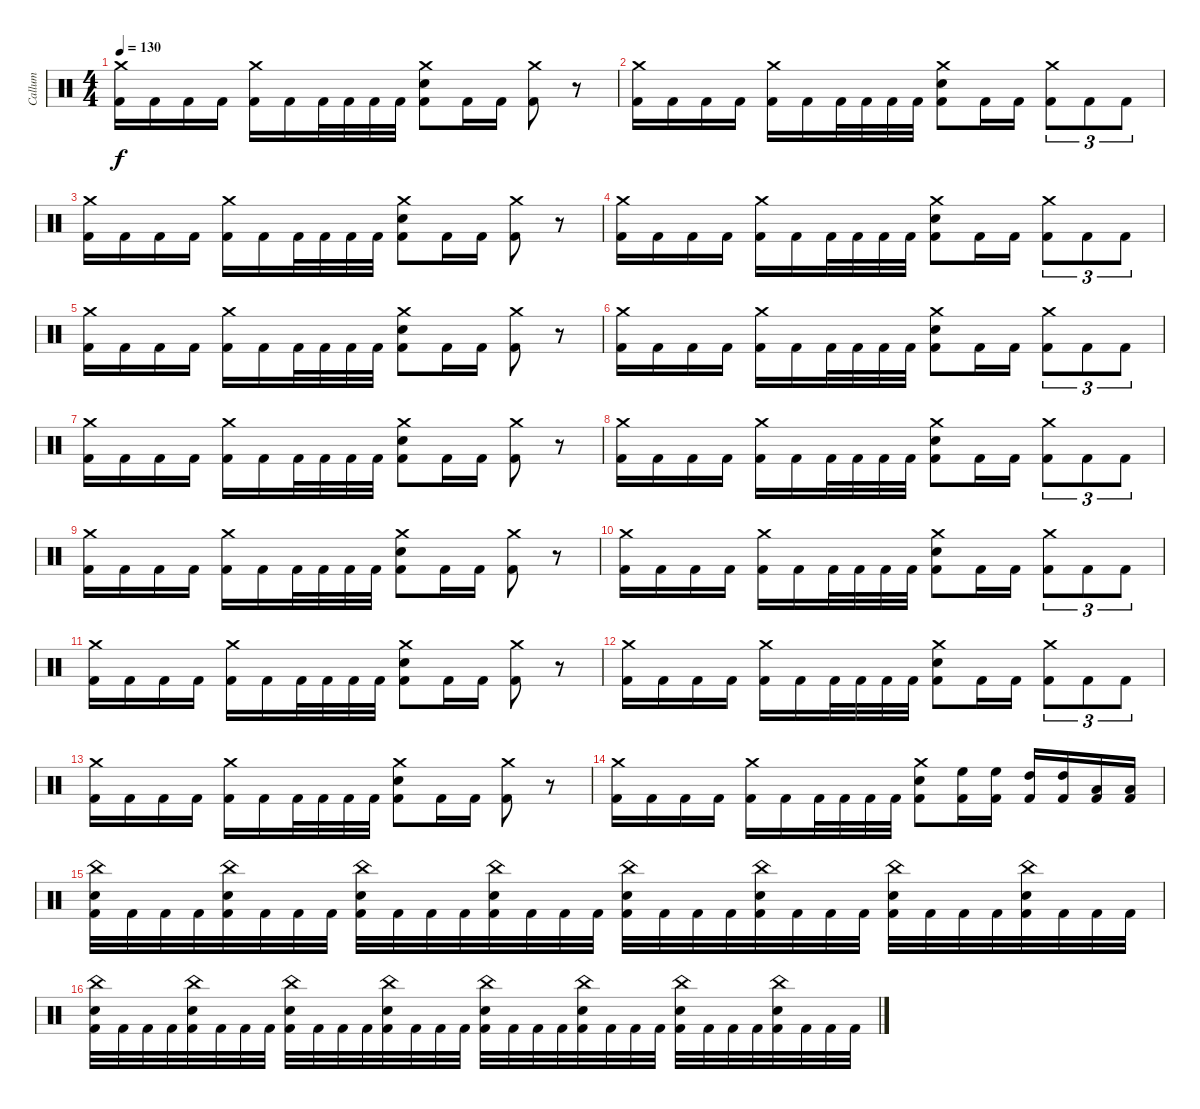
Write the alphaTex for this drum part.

\track ("Callum" "Callum") {instrument percussion}
\staff {score}
\articulation defaults
\ts (4 4)
\tempo 130
\clef neutral
\ks c
("Crash medium (hit)" "Kick (hit) 2").16{dy f} "Kick (hit) 2".16 "Kick (hit) 2".16 "Kick (hit) 2".16 ("Crash medium (hit)" "Kick (hit) 2").16 "Kick (hit) 2".16 "Kick (hit) 2".32 "Kick (hit) 2".32 "Kick (hit) 2".32 "Kick (hit) 2".32 ("Crash medium (hit)" "Electric Snare (hit)" "Kick (hit) 2").8 "Kick (hit) 2".16 "Kick (hit) 2".16 ("Crash medium (hit)" "Kick (hit) 2").8 r.8 |
("Crash medium (hit)" "Kick (hit) 2").16 "Kick (hit) 2".16 "Kick (hit) 2".16 "Kick (hit) 2".16 ("Crash medium (hit)" "Kick (hit) 2").16 "Kick (hit) 2".16 "Kick (hit) 2".32 "Kick (hit) 2".32 "Kick (hit) 2".32 "Kick (hit) 2".32 ("Crash medium (hit)" "Electric Snare (hit)" "Kick (hit) 2").8 "Kick (hit) 2".16 "Kick (hit) 2".16 ("Crash medium (hit)" "Kick (hit) 2").8{tu (3 2)} "Kick (hit) 2".8{tu (3 2)} "Kick (hit) 2".8{tu (3 2)} |
("Crash medium (hit)" "Kick (hit) 2").16 "Kick (hit) 2".16 "Kick (hit) 2".16 "Kick (hit) 2".16 ("Crash medium (hit)" "Kick (hit) 2").16 "Kick (hit) 2".16 "Kick (hit) 2".32 "Kick (hit) 2".32 "Kick (hit) 2".32 "Kick (hit) 2".32 ("Crash medium (hit)" "Electric Snare (hit)" "Kick (hit) 2").8 "Kick (hit) 2".16 "Kick (hit) 2".16 ("Crash medium (hit)" "Kick (hit) 2").8 r.8 |
("Crash medium (hit)" "Kick (hit) 2").16 "Kick (hit) 2".16 "Kick (hit) 2".16 "Kick (hit) 2".16 ("Crash medium (hit)" "Kick (hit) 2").16 "Kick (hit) 2".16 "Kick (hit) 2".32 "Kick (hit) 2".32 "Kick (hit) 2".32 "Kick (hit) 2".32 ("Crash medium (hit)" "Electric Snare (hit)" "Kick (hit) 2").8 "Kick (hit) 2".16 "Kick (hit) 2".16 ("Crash medium (hit)" "Kick (hit) 2").8{tu (3 2)} "Kick (hit) 2".8{tu (3 2)} "Kick (hit) 2".8{tu (3 2)} |
("Crash medium (hit)" "Kick (hit) 2").16 "Kick (hit) 2".16 "Kick (hit) 2".16 "Kick (hit) 2".16 ("Crash medium (hit)" "Kick (hit) 2").16 "Kick (hit) 2".16 "Kick (hit) 2".32 "Kick (hit) 2".32 "Kick (hit) 2".32 "Kick (hit) 2".32 ("Crash medium (hit)" "Electric Snare (hit)" "Kick (hit) 2").8 "Kick (hit) 2".16 "Kick (hit) 2".16 ("Crash medium (hit)" "Kick (hit) 2").8 r.8 |
("Crash medium (hit)" "Kick (hit) 2").16 "Kick (hit) 2".16 "Kick (hit) 2".16 "Kick (hit) 2".16 ("Crash medium (hit)" "Kick (hit) 2").16 "Kick (hit) 2".16 "Kick (hit) 2".32 "Kick (hit) 2".32 "Kick (hit) 2".32 "Kick (hit) 2".32 ("Crash medium (hit)" "Electric Snare (hit)" "Kick (hit) 2").8 "Kick (hit) 2".16 "Kick (hit) 2".16 ("Crash medium (hit)" "Kick (hit) 2").8{tu (3 2)} "Kick (hit) 2".8{tu (3 2)} "Kick (hit) 2".8{tu (3 2)} |
("Crash medium (hit)" "Kick (hit) 2").16 "Kick (hit) 2".16 "Kick (hit) 2".16 "Kick (hit) 2".16 ("Crash medium (hit)" "Kick (hit) 2").16 "Kick (hit) 2".16 "Kick (hit) 2".32 "Kick (hit) 2".32 "Kick (hit) 2".32 "Kick (hit) 2".32 ("Crash medium (hit)" "Electric Snare (hit)" "Kick (hit) 2").8 "Kick (hit) 2".16 "Kick (hit) 2".16 ("Crash medium (hit)" "Kick (hit) 2").8 r.8 |
("Crash medium (hit)" "Kick (hit) 2").16 "Kick (hit) 2".16 "Kick (hit) 2".16 "Kick (hit) 2".16 ("Crash medium (hit)" "Kick (hit) 2").16 "Kick (hit) 2".16 "Kick (hit) 2".32 "Kick (hit) 2".32 "Kick (hit) 2".32 "Kick (hit) 2".32 ("Crash medium (hit)" "Electric Snare (hit)" "Kick (hit) 2").8 "Kick (hit) 2".16 "Kick (hit) 2".16 ("Crash medium (hit)" "Kick (hit) 2").8{tu (3 2)} "Kick (hit) 2".8{tu (3 2)} "Kick (hit) 2".8{tu (3 2)} |
("Crash medium (hit)" "Kick (hit) 2").16 "Kick (hit) 2".16 "Kick (hit) 2".16 "Kick (hit) 2".16 ("Crash medium (hit)" "Kick (hit) 2").16 "Kick (hit) 2".16 "Kick (hit) 2".32 "Kick (hit) 2".32 "Kick (hit) 2".32 "Kick (hit) 2".32 ("Crash medium (hit)" "Electric Snare (hit)" "Kick (hit) 2").8 "Kick (hit) 2".16 "Kick (hit) 2".16 ("Crash medium (hit)" "Kick (hit) 2").8 r.8 |
("Crash medium (hit)" "Kick (hit) 2").16 "Kick (hit) 2".16 "Kick (hit) 2".16 "Kick (hit) 2".16 ("Crash medium (hit)" "Kick (hit) 2").16 "Kick (hit) 2".16 "Kick (hit) 2".32 "Kick (hit) 2".32 "Kick (hit) 2".32 "Kick (hit) 2".32 ("Crash medium (hit)" "Electric Snare (hit)" "Kick (hit) 2").8 "Kick (hit) 2".16 "Kick (hit) 2".16 ("Crash medium (hit)" "Kick (hit) 2").8{tu (3 2)} "Kick (hit) 2".8{tu (3 2)} "Kick (hit) 2".8{tu (3 2)} |
("Crash medium (hit)" "Kick (hit) 2").16 "Kick (hit) 2".16 "Kick (hit) 2".16 "Kick (hit) 2".16 ("Crash medium (hit)" "Kick (hit) 2").16 "Kick (hit) 2".16 "Kick (hit) 2".32 "Kick (hit) 2".32 "Kick (hit) 2".32 "Kick (hit) 2".32 ("Crash medium (hit)" "Electric Snare (hit)" "Kick (hit) 2").8 "Kick (hit) 2".16 "Kick (hit) 2".16 ("Crash medium (hit)" "Kick (hit) 2").8 r.8 |
("Crash medium (hit)" "Kick (hit) 2").16 "Kick (hit) 2".16 "Kick (hit) 2".16 "Kick (hit) 2".16 ("Crash medium (hit)" "Kick (hit) 2").16 "Kick (hit) 2".16 "Kick (hit) 2".32 "Kick (hit) 2".32 "Kick (hit) 2".32 "Kick (hit) 2".32 ("Crash medium (hit)" "Electric Snare (hit)" "Kick (hit) 2").8 "Kick (hit) 2".16 "Kick (hit) 2".16 ("Crash medium (hit)" "Kick (hit) 2").8{tu (3 2)} "Kick (hit) 2".8{tu (3 2)} "Kick (hit) 2".8{tu (3 2)} |
("Crash medium (hit)" "Kick (hit) 2").16 "Kick (hit) 2".16 "Kick (hit) 2".16 "Kick (hit) 2".16 ("Crash medium (hit)" "Kick (hit) 2").16 "Kick (hit) 2".16 "Kick (hit) 2".32 "Kick (hit) 2".32 "Kick (hit) 2".32 "Kick (hit) 2".32 ("Crash medium (hit)" "Electric Snare (hit)" "Kick (hit) 2").8 "Kick (hit) 2".16 "Kick (hit) 2".16 ("Crash medium (hit)" "Kick (hit) 2").8 r.8 |
("Crash medium (hit)" "Kick (hit) 2").16 "Kick (hit) 2".16 "Kick (hit) 2".16 "Kick (hit) 2".16 ("Crash medium (hit)" "Kick (hit) 2").16 "Kick (hit) 2".16 "Kick (hit) 2".32 "Kick (hit) 2".32 "Kick (hit) 2".32 "Kick (hit) 2".32 ("Crash medium (hit)" "Electric Snare (hit)" "Kick (hit) 2").8 ("High Floor Tom (hit)" "Kick (hit) 2").16 ("High Floor Tom (hit)" "Kick (hit) 2").16 ("High Tom (hit)" "Kick (hit) 2").16 ("High Tom (hit)" "Kick (hit) 2").16 ("Low Tom (hit)" "Kick (hit) 2").16 ("Low Tom (hit)" "Kick (hit) 2").16 |
("China (hit)" "Electric Snare (hit)" "Kick (hit) 2").32 "Kick (hit) 2".32 "Kick (hit) 2".32 "Kick (hit) 2".32 ("China (hit)" "Electric Snare (hit)" "Kick (hit) 2").32 "Kick (hit) 2".32 "Kick (hit) 2".32 "Kick (hit) 2".32 ("China (hit)" "Electric Snare (hit)" "Kick (hit) 2").32 "Kick (hit) 2".32 "Kick (hit) 2".32 "Kick (hit) 2".32 ("China (hit)" "Electric Snare (hit)" "Kick (hit) 2").32 "Kick (hit) 2".32 "Kick (hit) 2".32 "Kick (hit) 2".32 ("China (hit)" "Electric Snare (hit)" "Kick (hit) 2").32 "Kick (hit) 2".32 "Kick (hit) 2".32 "Kick (hit) 2".32 ("China (hit)" "Electric Snare (hit)" "Kick (hit) 2").32 "Kick (hit) 2".32 "Kick (hit) 2".32 "Kick (hit) 2".32 ("China (hit)" "Electric Snare (hit)" "Kick (hit) 2").32 "Kick (hit) 2".32 "Kick (hit) 2".32 "Kick (hit) 2".32 ("China (hit)" "Electric Snare (hit)" "Kick (hit) 2").32 "Kick (hit) 2".32 "Kick (hit) 2".32 "Kick (hit) 2".32 |
("China (hit)" "Electric Snare (hit)" "Kick (hit) 2").32 "Kick (hit) 2".32 "Kick (hit) 2".32 "Kick (hit) 2".32 ("China (hit)" "Electric Snare (hit)" "Kick (hit) 2").32 "Kick (hit) 2".32 "Kick (hit) 2".32 "Kick (hit) 2".32 ("China (hit)" "Electric Snare (hit)" "Kick (hit) 2").32 "Kick (hit) 2".32 "Kick (hit) 2".32 "Kick (hit) 2".32 ("China (hit)" "Electric Snare (hit)" "Kick (hit) 2").32 "Kick (hit) 2".32 "Kick (hit) 2".32 "Kick (hit) 2".32 ("China (hit)" "Electric Snare (hit)" "Kick (hit) 2").32 "Kick (hit) 2".32 "Kick (hit) 2".32 "Kick (hit) 2".32 ("China (hit)" "Electric Snare (hit)" "Kick (hit) 2").32 "Kick (hit) 2".32 "Kick (hit) 2".32 "Kick (hit) 2".32 ("China (hit)" "Electric Snare (hit)" "Kick (hit) 2").32 "Kick (hit) 2".32 "Kick (hit) 2".32 "Kick (hit) 2".32 ("China (hit)" "Electric Snare (hit)" "Kick (hit) 2").32 "Kick (hit) 2".32 "Kick (hit) 2".32 "Kick (hit) 2".32
